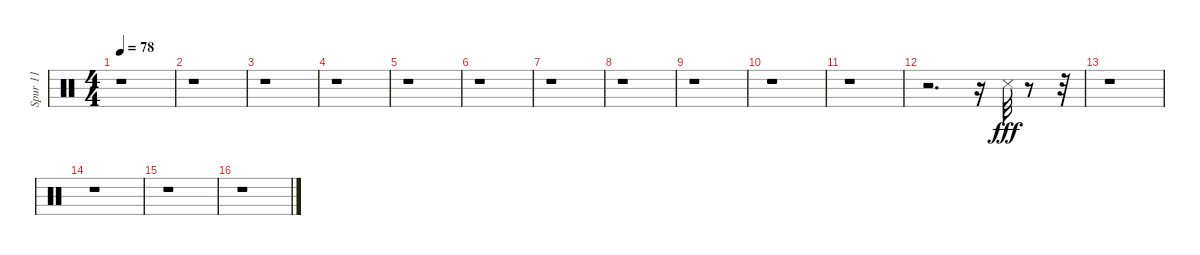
\track ("Spur 11" "Spur 11") {instrument percussion}
\staff {score}
\articulation defaults
\ts (4 4)
\tempo 78
\clef neutral
\ks c
r.1{dy fff} |
r.1 |
r.1 |
r.1 |
r.1 |
r.1 |
r.1 |
r.1 |
r.1 |
r.1 |
r.1 |
r.2{d} r.16 "Snare (side stick) 3".32 r.8 r.32 |
r.1 |
r.1 |
r.1 |
r.1
